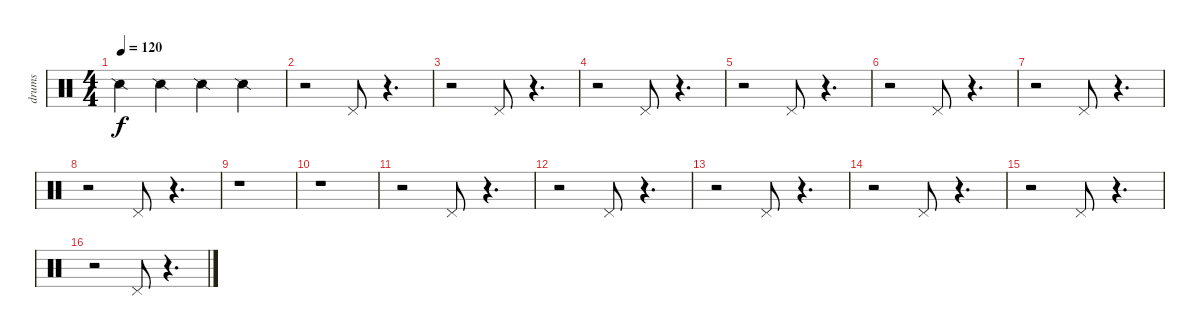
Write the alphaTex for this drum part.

\track ("drums" "drums") {instrument percussion}
\staff {score}
\articulation defaults
\ts (4 4)
\tempo 120
\clef neutral
\ks c "Snare (side stick) 2".4{dy f} "Snare (side stick) 2".4 "Snare (side stick) 2".4 "Snare (side stick) 2".4
|
r.2 "Pedal Hi-Hat (hit)".8 r.4{d} |
r.2 "Pedal Hi-Hat (hit)".8 r.4{d} |
r.2 "Pedal Hi-Hat (hit)".8 r.4{d} |
r.2 "Pedal Hi-Hat (hit)".8 r.4{d} |
r.2 "Pedal Hi-Hat (hit)".8 r.4{d} |
r.2 "Pedal Hi-Hat (hit)".8 r.4{d} |
r.2 "Pedal Hi-Hat (hit)".8 r.4{d} |
r.1 |
r.1 |
r.2 "Pedal Hi-Hat (hit)".8 r.4{d} |
r.2 "Pedal Hi-Hat (hit)".8 r.4{d} |
r.2 "Pedal Hi-Hat (hit)".8 r.4{d} |
r.2 "Pedal Hi-Hat (hit)".8 r.4{d} |
r.2 "Pedal Hi-Hat (hit)".8 r.4{d} |
r.2 "Pedal Hi-Hat (hit)".8 r.4{d}
